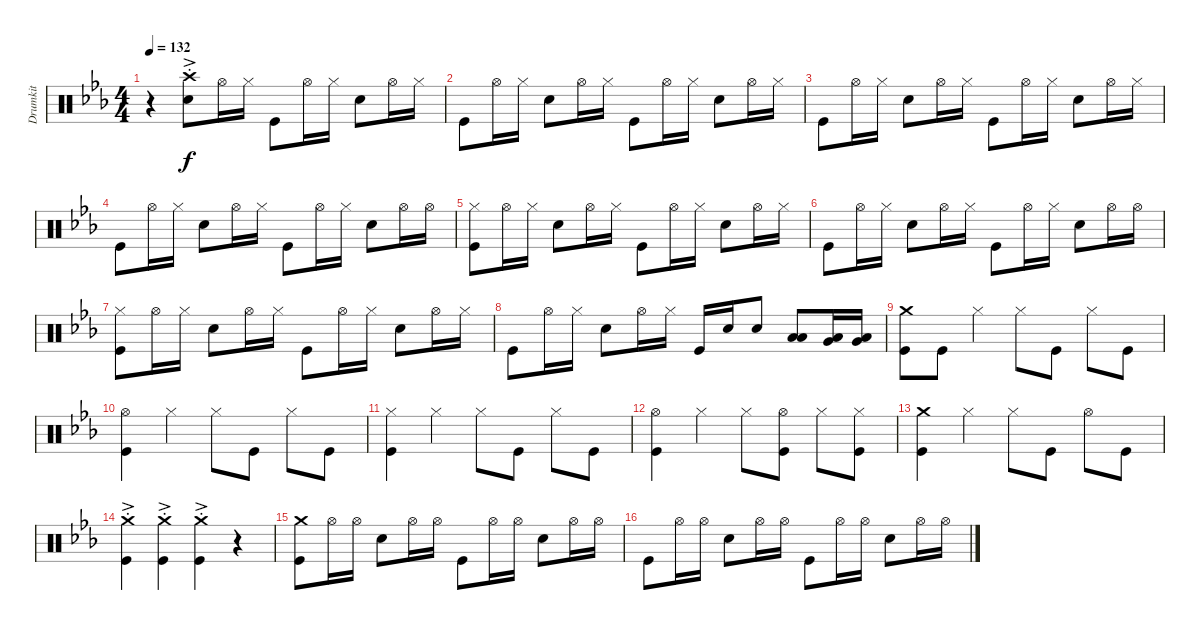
\track ("Drumkit" "Drumkit") {instrument percussion}
\staff {score}
\articulation defaults
\ts (4 4)
\tempo 132
\clef neutral
\ks eb
r.4{dy f} ("Snare (hit) 2"{ac st} "Crash high (hit)"{ac st}).8 "Hi-Hat (open)".16 "Hi-Hat (closed)".16 "Kick (hit)".8 "Hi-Hat (open)".16 "Hi-Hat (closed)".16 "Snare (hit) 2".8 "Hi-Hat (open)".16 "Hi-Hat (closed)".16 |
"Kick (hit)".8 "Hi-Hat (open)".16 "Hi-Hat (closed)".16 "Snare (hit) 2".8 "Hi-Hat (open)".16 "Hi-Hat (closed)".16 "Kick (hit)".8 "Hi-Hat (open)".16 "Hi-Hat (closed)".16 "Snare (hit) 2".8 "Hi-Hat (open)".16 "Hi-Hat (closed)".16 |
"Kick (hit)".8 "Hi-Hat (open)".16 "Hi-Hat (closed)".16 "Snare (hit) 2".8 "Hi-Hat (open)".16 "Hi-Hat (closed)".16 "Kick (hit)".8 "Hi-Hat (open)".16 "Hi-Hat (closed)".16 "Snare (hit) 2".8 "Hi-Hat (open)".16 "Hi-Hat (closed)".16 |
"Kick (hit)".8 "Hi-Hat (open)".16 "Hi-Hat (closed)".16 "Snare (hit) 2".8 "Hi-Hat (open)".16 "Hi-Hat (closed)".16 "Kick (hit)".8 "Hi-Hat (open)".16 "Hi-Hat (closed)".16 "Snare (hit) 2".8 "Hi-Hat (open)".16 "Hi-Hat (open)".16 |
("Kick (hit)" "Hi-Hat (closed)").8 "Hi-Hat (open)".16 "Hi-Hat (closed)".16 "Snare (hit) 2".8 "Hi-Hat (open)".16 "Hi-Hat (closed)".16 "Kick (hit)".8 "Hi-Hat (open)".16 "Hi-Hat (closed)".16 "Snare (hit) 2".8 "Hi-Hat (open)".16 "Hi-Hat (closed)".16 |
"Kick (hit)".8 "Hi-Hat (open)".16 "Hi-Hat (closed)".16 "Snare (hit) 2".8 "Hi-Hat (open)".16 "Hi-Hat (closed)".16 "Kick (hit)".8 "Hi-Hat (open)".16 "Hi-Hat (closed)".16 "Snare (hit) 2".8 "Hi-Hat (open)".16 "Hi-Hat (open)".16 |
("Kick (hit)" "Hi-Hat (closed)").8 "Hi-Hat (open)".16 "Hi-Hat (closed)".16 "Snare (hit) 2".8 "Hi-Hat (open)".16 "Hi-Hat (closed)".16 "Kick (hit)".8 "Hi-Hat (open)".16 "Hi-Hat (closed)".16 "Snare (hit) 2".8 "Hi-Hat (open)".16 "Hi-Hat (closed)".16 |
"Kick (hit)".8 "Hi-Hat (open)".16 "Hi-Hat (closed)".16 "Snare (hit) 2".8 "Hi-Hat (open)".16 "Hi-Hat (closed)".16 "Kick (hit)".16 "Snare (hit) 2".16 "Snare (hit) 2".8 ("Low Tom (hit)" "Low Floor Tom (hit)").8 ("Very Low Tom (hit)" "Low Floor Tom (hit)").16 ("Low Floor Tom (hit)" "Very Low Tom (hit)").16 |
("Crash medium (hit)" "Kick (hit)").8 "Kick (hit)".8 "Hi-Hat (closed)".4 "Hi-Hat (closed)".8 "Kick (hit)".8 "Hi-Hat (closed)".8 "Kick (hit)".8 |
("Hi-Hat (open)" "Kick (hit)").4 "Hi-Hat (closed)".4 "Hi-Hat (closed)".8 "Kick (hit)".8 "Hi-Hat (closed)".8 "Kick (hit)".8 |
("Hi-Hat (closed)" "Kick (hit)").4 "Hi-Hat (closed)".4 "Hi-Hat (closed)".8 "Kick (hit)".8 "Hi-Hat (closed)".8 "Kick (hit)".8 |
("Hi-Hat (open)" "Kick (hit)").4 "Hi-Hat (closed)".4 "Hi-Hat (closed)".8 ("Hi-Hat (open)" "Kick (hit)").8 "Hi-Hat (closed)".8 ("Hi-Hat (closed)" "Kick (hit)").8 |
("Crash medium (hit)" "Kick (hit)").4 "Hi-Hat (closed)".4 "Hi-Hat (closed)".8 "Kick (hit)".8 "Hi-Hat (open)".8 "Kick (hit)".8 |
("Kick (hit)" "Crash medium (hit)"{ac st}).4 ("Kick (hit)" "Crash medium (hit)"{ac st}).4 ("Kick (hit)" "Crash medium (hit)"{ac st}).4 r.4 |
("Kick (hit)" "Crash medium (hit)").8 "Hi-Hat (open)".16 "Hi-Hat (open)".16 "Snare (hit) 2".8 "Hi-Hat (open)".16 "Hi-Hat (open)".16 "Kick (hit)".8 "Hi-Hat (open)".16 "Hi-Hat (open)".16 "Snare (hit) 2".8 "Hi-Hat (open)".16 "Hi-Hat (open)".16 |
"Kick (hit)".8 "Hi-Hat (open)".16 "Hi-Hat (open)".16 "Snare (hit) 2".8 "Hi-Hat (open)".16 "Hi-Hat (open)".16 "Kick (hit)".8 "Hi-Hat (open)".16 "Hi-Hat (open)".16 "Snare (hit) 2".8 "Hi-Hat (open)".16 "Hi-Hat (open)".16
